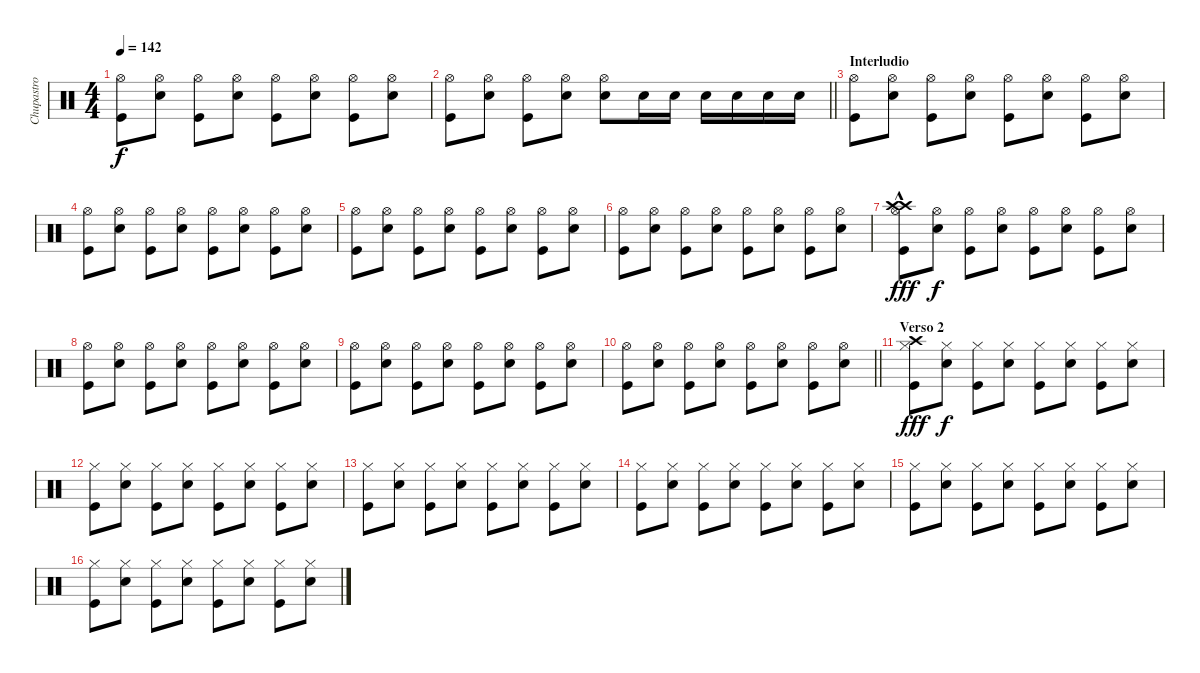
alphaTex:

\track ("Chupastro" "Chupastro") {instrument percussion}
\staff {score}
\articulation defaults
\ts (4 4)
\tempo 142
\clef neutral
\ks c
("Hi-Hat (open)" "Kick (hit)").8{dy f} ("Hi-Hat (open)" "Snare (hit) 2").8 ("Hi-Hat (open)" "Kick (hit)").8 ("Hi-Hat (open)" "Snare (hit) 2").8 ("Hi-Hat (open)" "Kick (hit)").8 ("Hi-Hat (open)" "Snare (hit) 2").8 ("Hi-Hat (open)" "Kick (hit)").8 ("Hi-Hat (open)" "Snare (hit) 2").8 |
\barLineRight lightlight
("Hi-Hat (open)" "Kick (hit)").8 ("Hi-Hat (open)" "Snare (hit) 2").8 ("Hi-Hat (open)" "Kick (hit)").8 ("Hi-Hat (open)" "Snare (hit) 2").8 ("Hi-Hat (open)" "Snare (hit) 2").8 "Snare (hit) 2".16 "Snare (hit) 2".16 "Snare (hit) 2".16 "Snare (hit) 2".16 "Snare (hit) 2".16 "Snare (hit) 2".16 |
\section ("" "Interludio")
("Hi-Hat (open)" "Kick (hit)").8 ("Hi-Hat (open)" "Snare (hit) 2").8 ("Hi-Hat (open)" "Kick (hit)").8 ("Hi-Hat (open)" "Snare (hit) 2").8 ("Hi-Hat (open)" "Kick (hit)").8 ("Hi-Hat (open)" "Snare (hit) 2").8 ("Hi-Hat (open)" "Kick (hit)").8 ("Hi-Hat (open)" "Snare (hit) 2").8 |
("Hi-Hat (open)" "Kick (hit)").8 ("Hi-Hat (open)" "Snare (hit) 2").8 ("Hi-Hat (open)" "Kick (hit)").8 ("Hi-Hat (open)" "Snare (hit) 2").8 ("Hi-Hat (open)" "Kick (hit)").8 ("Hi-Hat (open)" "Snare (hit) 2").8 ("Hi-Hat (open)" "Kick (hit)").8 ("Hi-Hat (open)" "Snare (hit) 2").8 |
("Hi-Hat (open)" "Kick (hit)").8 ("Hi-Hat (open)" "Snare (hit) 2").8 ("Hi-Hat (open)" "Kick (hit)").8 ("Hi-Hat (open)" "Snare (hit) 2").8 ("Hi-Hat (open)" "Kick (hit)").8 ("Hi-Hat (open)" "Snare (hit) 2").8 ("Hi-Hat (open)" "Kick (hit)").8 ("Hi-Hat (open)" "Snare (hit) 2").8 |
("Hi-Hat (open)" "Kick (hit)").8 ("Hi-Hat (open)" "Snare (hit) 2").8 ("Hi-Hat (open)" "Kick (hit)").8 ("Hi-Hat (open)" "Snare (hit) 2").8 ("Hi-Hat (open)" "Kick (hit)").8 ("Hi-Hat (open)" "Snare (hit) 2").8 ("Hi-Hat (open)" "Kick (hit)").8 ("Hi-Hat (open)" "Snare (hit) 2").8 |
("Crash high (hit)"{hac} "Kick (hit)" "Hi-Hat (open)" "Crash high (hit)").8{dy fff} ("Hi-Hat (open)" "Snare (hit) 2").8{dy f} ("Hi-Hat (open)" "Kick (hit)").8 ("Hi-Hat (open)" "Snare (hit) 2").8 ("Hi-Hat (open)" "Kick (hit)").8 ("Hi-Hat (open)" "Snare (hit) 2").8 ("Hi-Hat (open)" "Kick (hit)").8 ("Hi-Hat (open)" "Snare (hit) 2").8 |
("Hi-Hat (open)" "Kick (hit)").8 ("Hi-Hat (open)" "Snare (hit) 2").8 ("Hi-Hat (open)" "Kick (hit)").8 ("Hi-Hat (open)" "Snare (hit) 2").8 ("Hi-Hat (open)" "Kick (hit)").8 ("Hi-Hat (open)" "Snare (hit) 2").8 ("Hi-Hat (open)" "Kick (hit)").8 ("Hi-Hat (open)" "Snare (hit) 2").8 |
("Hi-Hat (open)" "Kick (hit)").8 ("Hi-Hat (open)" "Snare (hit) 2").8 ("Hi-Hat (open)" "Kick (hit)").8 ("Hi-Hat (open)" "Snare (hit) 2").8 ("Hi-Hat (open)" "Kick (hit)").8 ("Hi-Hat (open)" "Snare (hit) 2").8 ("Hi-Hat (open)" "Kick (hit)").8 ("Hi-Hat (open)" "Snare (hit) 2").8 |
\barLineRight lightlight
("Hi-Hat (open)" "Kick (hit)").8 ("Hi-Hat (open)" "Snare (hit) 2").8 ("Hi-Hat (open)" "Kick (hit)").8 ("Hi-Hat (open)" "Snare (hit) 2").8 ("Hi-Hat (open)" "Kick (hit)").8 ("Hi-Hat (open)" "Snare (hit) 2").8 ("Hi-Hat (open)" "Kick (hit)").8 ("Hi-Hat (open)" "Snare (hit) 2").8 |
\section ("" "Verso 2")
("Hi-Hat (closed)" "Kick (hit)" "Crash high (hit)").8{dy fff} ("Hi-Hat (closed)" "Snare (hit) 2").8{dy f} ("Hi-Hat (closed)" "Kick (hit)").8 ("Hi-Hat (closed)" "Snare (hit) 2").8 ("Hi-Hat (closed)" "Kick (hit)").8 ("Hi-Hat (closed)" "Snare (hit) 2").8 ("Hi-Hat (closed)" "Kick (hit)").8 ("Hi-Hat (closed)" "Snare (hit) 2").8 |
("Hi-Hat (closed)" "Kick (hit)").8 ("Hi-Hat (closed)" "Snare (hit) 2").8 ("Hi-Hat (closed)" "Kick (hit)").8 ("Hi-Hat (closed)" "Snare (hit) 2").8 ("Hi-Hat (closed)" "Kick (hit)").8 ("Hi-Hat (closed)" "Snare (hit) 2").8 ("Hi-Hat (closed)" "Kick (hit)").8 ("Hi-Hat (closed)" "Snare (hit) 2").8 |
("Hi-Hat (closed)" "Kick (hit)").8 ("Hi-Hat (closed)" "Snare (hit) 2").8 ("Hi-Hat (closed)" "Kick (hit)").8 ("Hi-Hat (closed)" "Snare (hit) 2").8 ("Hi-Hat (closed)" "Kick (hit)").8 ("Hi-Hat (closed)" "Snare (hit) 2").8 ("Hi-Hat (closed)" "Kick (hit)").8 ("Hi-Hat (closed)" "Snare (hit) 2").8 |
("Hi-Hat (closed)" "Kick (hit)").8 ("Hi-Hat (closed)" "Snare (hit) 2").8 ("Hi-Hat (closed)" "Kick (hit)").8 ("Hi-Hat (closed)" "Snare (hit) 2").8 ("Hi-Hat (closed)" "Kick (hit)").8 ("Hi-Hat (closed)" "Snare (hit) 2").8 ("Hi-Hat (closed)" "Kick (hit)").8 ("Hi-Hat (closed)" "Snare (hit) 2").8 |
("Hi-Hat (closed)" "Kick (hit)").8 ("Hi-Hat (closed)" "Snare (hit) 2").8 ("Hi-Hat (closed)" "Kick (hit)").8 ("Hi-Hat (closed)" "Snare (hit) 2").8 ("Hi-Hat (closed)" "Kick (hit)").8 ("Hi-Hat (closed)" "Snare (hit) 2").8 ("Hi-Hat (closed)" "Kick (hit)").8 ("Hi-Hat (closed)" "Snare (hit) 2").8 |
("Hi-Hat (closed)" "Kick (hit)").8 ("Hi-Hat (closed)" "Snare (hit) 2").8 ("Hi-Hat (closed)" "Kick (hit)").8 ("Hi-Hat (closed)" "Snare (hit) 2").8 ("Hi-Hat (closed)" "Kick (hit)").8 ("Hi-Hat (closed)" "Snare (hit) 2").8 ("Hi-Hat (closed)" "Kick (hit)").8 ("Hi-Hat (closed)" "Snare (hit) 2").8
